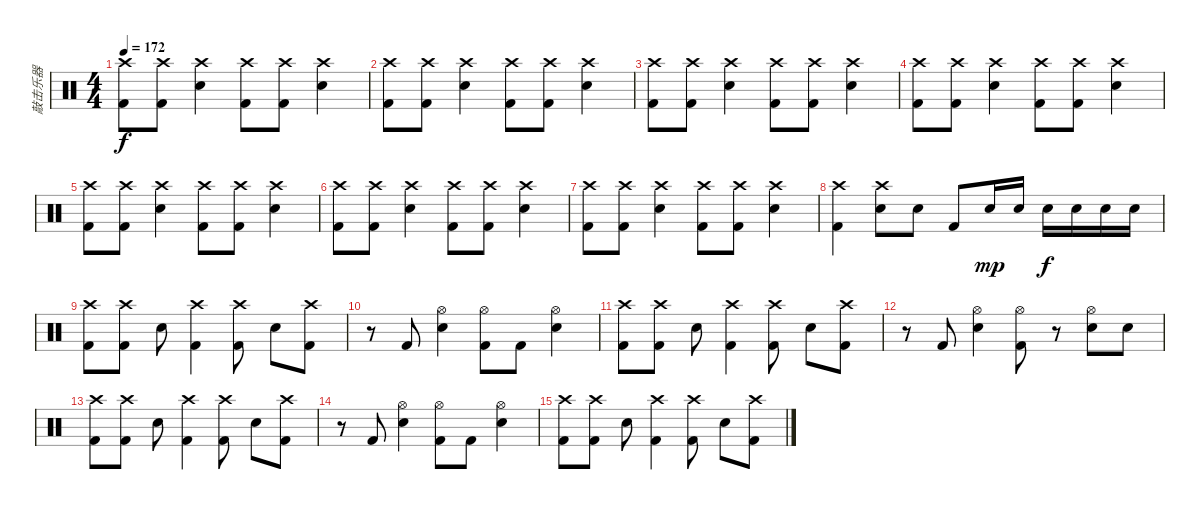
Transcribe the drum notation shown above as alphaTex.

\track ("敲击乐器" "敲击乐器") {instrument percussion}
\staff {score}
\articulation defaults
\ts (4 4)
\tempo 172
\clef neutral
\ks c
("Crash high (hit)" "Kick (hit) 2").8{dy f} ("Crash high (hit)" "Kick (hit) 2").8 ("Crash high (hit)" "Electric Snare (hit)").4 ("Crash high (hit)" "Kick (hit) 2").8 ("Crash high (hit)" "Kick (hit) 2").8 ("Crash high (hit)" "Electric Snare (hit)").4 |
("Crash high (hit)" "Kick (hit) 2").8 ("Crash high (hit)" "Kick (hit) 2").8 ("Crash high (hit)" "Electric Snare (hit)").4 ("Crash high (hit)" "Kick (hit) 2").8 ("Crash high (hit)" "Kick (hit) 2").8 ("Crash high (hit)" "Electric Snare (hit)").4 |
("Crash high (hit)" "Kick (hit) 2").8 ("Crash high (hit)" "Kick (hit) 2").8 ("Crash high (hit)" "Electric Snare (hit)").4 ("Crash high (hit)" "Kick (hit) 2").8 ("Crash high (hit)" "Kick (hit) 2").8 ("Crash high (hit)" "Electric Snare (hit)").4 |
("Crash high (hit)" "Kick (hit) 2").8 ("Crash high (hit)" "Kick (hit) 2").8 ("Crash high (hit)" "Electric Snare (hit)").4 ("Crash high (hit)" "Kick (hit) 2").8 ("Crash high (hit)" "Kick (hit) 2").8 ("Crash high (hit)" "Electric Snare (hit)").4 |
("Crash high (hit)" "Kick (hit) 2").8 ("Crash high (hit)" "Kick (hit) 2").8 ("Crash high (hit)" "Electric Snare (hit)").4 ("Crash high (hit)" "Kick (hit) 2").8 ("Crash high (hit)" "Kick (hit) 2").8 ("Crash high (hit)" "Electric Snare (hit)").4 |
("Crash high (hit)" "Kick (hit) 2").8 ("Crash high (hit)" "Kick (hit) 2").8 ("Crash high (hit)" "Electric Snare (hit)").4 ("Crash high (hit)" "Kick (hit) 2").8 ("Crash high (hit)" "Kick (hit) 2").8 ("Crash high (hit)" "Electric Snare (hit)").4 |
("Crash high (hit)" "Kick (hit) 2").8 ("Crash high (hit)" "Kick (hit) 2").8 ("Crash high (hit)" "Electric Snare (hit)").4 ("Crash high (hit)" "Kick (hit) 2").8 ("Crash high (hit)" "Kick (hit) 2").8 ("Crash high (hit)" "Electric Snare (hit)").4 |
("Crash high (hit)" "Kick (hit) 2").4 ("Crash high (hit)" "Electric Snare (hit)").8 "Electric Snare (hit)".8 "Kick (hit) 2".8 "Electric Snare (hit)".16{dy mp} "Electric Snare (hit)".16 "Electric Snare (hit)".16{dy f} "Electric Snare (hit)".16 "Electric Snare (hit)".16 "Electric Snare (hit)".16 |
("Crash high (hit)" "Kick (hit) 2").8 ("Crash high (hit)" "Kick (hit) 2").8 "Electric Snare (hit)".8 ("Crash high (hit)" "Kick (hit) 2").4 ("Crash high (hit)" "Kick (hit) 2").8 "Electric Snare (hit)".8 ("Crash high (hit)" "Kick (hit) 2").8 |
r.8 "Kick (hit) 2".8 ("Hi-Hat (open)" "Electric Snare (hit)").4 ("Hi-Hat (open)" "Kick (hit) 2").8 "Kick (hit) 2".8 ("Hi-Hat (open)" "Electric Snare (hit)").4 |
("Crash high (hit)" "Kick (hit) 2").8 ("Crash high (hit)" "Kick (hit) 2").8 "Electric Snare (hit)".8 ("Crash high (hit)" "Kick (hit) 2").4 ("Crash high (hit)" "Kick (hit) 2").8 "Electric Snare (hit)".8 ("Crash high (hit)" "Kick (hit) 2").8 |
r.8 "Kick (hit) 2".8 ("Hi-Hat (open)" "Electric Snare (hit)").4 ("Hi-Hat (open)" "Kick (hit) 2").8 r.8 ("Hi-Hat (open)" "Electric Snare (hit)").8 "Electric Snare (hit)".8 |
("Crash high (hit)" "Kick (hit) 2").8 ("Crash high (hit)" "Kick (hit) 2").8 "Electric Snare (hit)".8 ("Crash high (hit)" "Kick (hit) 2").4 ("Crash high (hit)" "Kick (hit) 2").8 "Electric Snare (hit)".8 ("Crash high (hit)" "Kick (hit) 2").8 |
r.8 "Kick (hit) 2".8 ("Hi-Hat (open)" "Electric Snare (hit)").4 ("Hi-Hat (open)" "Kick (hit) 2").8 "Kick (hit) 2".8 ("Hi-Hat (open)" "Electric Snare (hit)").4 |
("Crash high (hit)" "Kick (hit) 2").8 ("Crash high (hit)" "Kick (hit) 2").8 "Electric Snare (hit)".8 ("Crash high (hit)" "Kick (hit) 2").4 ("Crash high (hit)" "Kick (hit) 2").8 "Electric Snare (hit)".8 ("Crash high (hit)" "Kick (hit) 2").8
